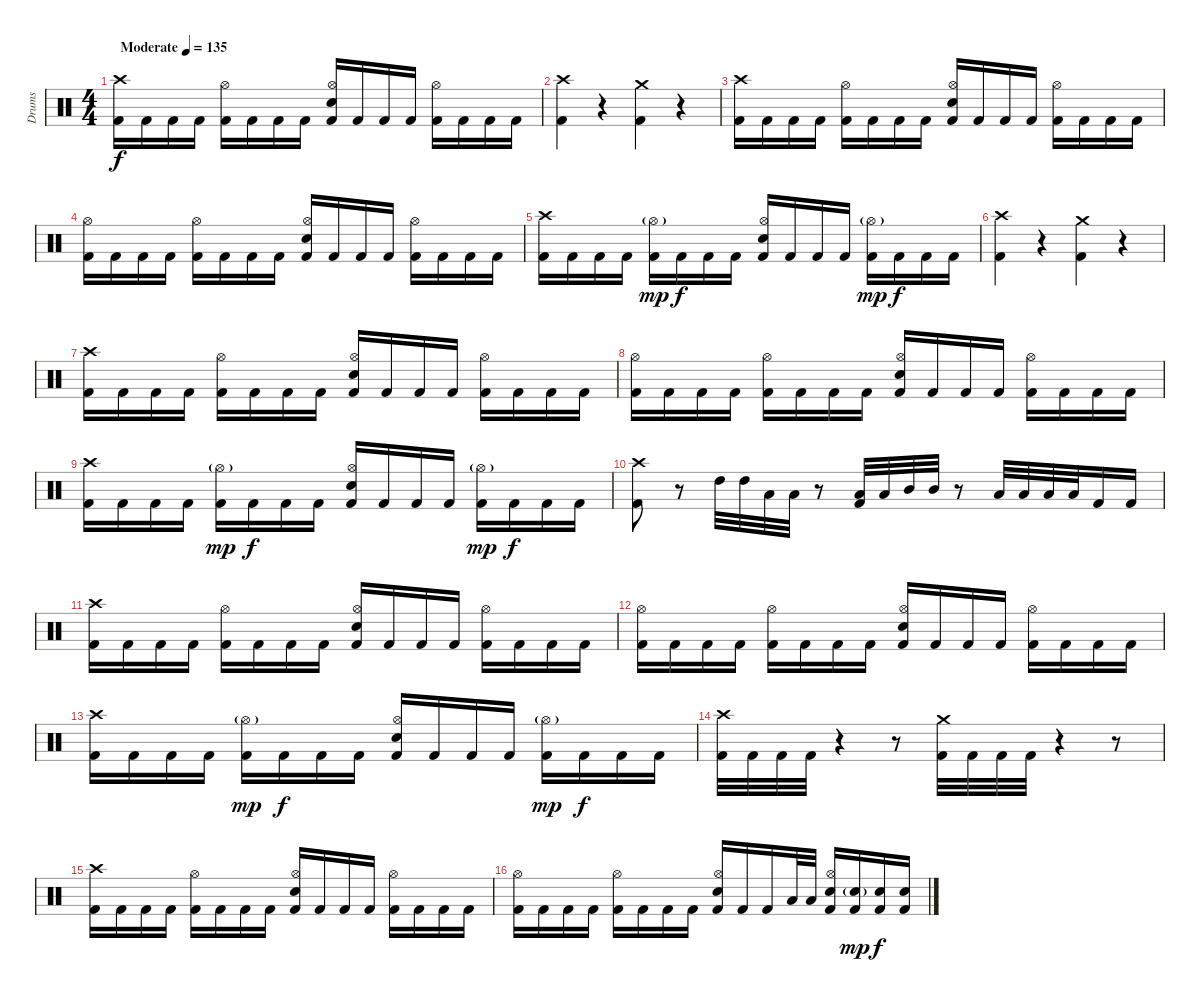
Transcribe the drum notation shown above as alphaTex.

\track ("Drums" "Drums") {instrument percussion}
\staff {score}
\articulation defaults
\ts (4 4)
\tempo (135 "Moderate")
\clef neutral
\ks c
("Crash high (hit)" "Kick (hit) 2").16{dy f} "Kick (hit) 2".16 "Kick (hit) 2".16 "Kick (hit) 2".16 ("Hi-Hat (open)" "Kick (hit) 2").16 "Kick (hit) 2".16 "Kick (hit) 2".16 "Kick (hit) 2".16 ("Hi-Hat (open)" "Electric Snare (hit)" "Kick (hit) 2").16 "Kick (hit) 2".16 "Kick (hit) 2".16 "Kick (hit) 2".16 ("Hi-Hat (open)" "Kick (hit) 2").16 "Kick (hit) 2".16 "Kick (hit) 2".16 "Kick (hit) 2".16 |
("Crash high (hit)" "Kick (hit) 2").4 r.4 ("Crash medium (hit)" "Kick (hit) 2").4 r.4 |
("Crash high (hit)" "Kick (hit) 2").16 "Kick (hit) 2".16 "Kick (hit) 2".16 "Kick (hit) 2".16 ("Hi-Hat (open)" "Kick (hit) 2").16 "Kick (hit) 2".16 "Kick (hit) 2".16 "Kick (hit) 2".16 ("Hi-Hat (open)" "Electric Snare (hit)" "Kick (hit) 2").16 "Kick (hit) 2".16 "Kick (hit) 2".16 "Kick (hit) 2".16 ("Hi-Hat (open)" "Kick (hit) 2").16 "Kick (hit) 2".16 "Kick (hit) 2".16 "Kick (hit) 2".16 |
("Hi-Hat (open)" "Kick (hit) 2").16 "Kick (hit) 2".16 "Kick (hit) 2".16 "Kick (hit) 2".16 ("Hi-Hat (open)" "Kick (hit) 2").16 "Kick (hit) 2".16 "Kick (hit) 2".16 "Kick (hit) 2".16 ("Hi-Hat (open)" "Electric Snare (hit)" "Kick (hit) 2").16 "Kick (hit) 2".16 "Kick (hit) 2".16 "Kick (hit) 2".16 ("Hi-Hat (open)" "Kick (hit) 2").16 "Kick (hit) 2".16 "Kick (hit) 2".16 "Kick (hit) 2".16 |
("Crash high (hit)" "Kick (hit) 2").16 "Kick (hit) 2".16 "Kick (hit) 2".16 "Kick (hit) 2".16 ("Hi-Hat (open)"{g} "Kick (hit) 2").16{dy mp} "Kick (hit) 2".16{dy f} "Kick (hit) 2".16 "Kick (hit) 2".16 ("Hi-Hat (open)" "Electric Snare (hit)" "Kick (hit) 2").16 "Kick (hit) 2".16 "Kick (hit) 2".16 "Kick (hit) 2".16 ("Hi-Hat (open)"{g} "Kick (hit) 2").16{dy mp} "Kick (hit) 2".16{dy f} "Kick (hit) 2".16 "Kick (hit) 2".16 |
("Crash high (hit)" "Kick (hit) 2").4 r.4 ("Crash medium (hit)" "Kick (hit) 2").4 r.4 |
("Crash high (hit)" "Kick (hit) 2").16 "Kick (hit) 2".16 "Kick (hit) 2".16 "Kick (hit) 2".16 ("Hi-Hat (open)" "Kick (hit) 2").16 "Kick (hit) 2".16 "Kick (hit) 2".16 "Kick (hit) 2".16 ("Hi-Hat (open)" "Electric Snare (hit)" "Kick (hit) 2").16 "Kick (hit) 2".16 "Kick (hit) 2".16 "Kick (hit) 2".16 ("Hi-Hat (open)" "Kick (hit) 2").16 "Kick (hit) 2".16 "Kick (hit) 2".16 "Kick (hit) 2".16 |
("Hi-Hat (open)" "Kick (hit) 2").16 "Kick (hit) 2".16 "Kick (hit) 2".16 "Kick (hit) 2".16 ("Hi-Hat (open)" "Kick (hit) 2").16 "Kick (hit) 2".16 "Kick (hit) 2".16 "Kick (hit) 2".16 ("Hi-Hat (open)" "Electric Snare (hit)" "Kick (hit) 2").16 "Kick (hit) 2".16 "Kick (hit) 2".16 "Kick (hit) 2".16 ("Hi-Hat (open)" "Kick (hit) 2").16 "Kick (hit) 2".16 "Kick (hit) 2".16 "Kick (hit) 2".16 |
("Crash high (hit)" "Kick (hit) 2").16 "Kick (hit) 2".16 "Kick (hit) 2".16 "Kick (hit) 2".16 ("Hi-Hat (open)"{g} "Kick (hit) 2").16{dy mp} "Kick (hit) 2".16{dy f} "Kick (hit) 2".16 "Kick (hit) 2".16 ("Hi-Hat (open)" "Electric Snare (hit)" "Kick (hit) 2").16 "Kick (hit) 2".16 "Kick (hit) 2".16 "Kick (hit) 2".16 ("Hi-Hat (open)"{g} "Kick (hit) 2").16{dy mp} "Kick (hit) 2".16{dy f} "Kick (hit) 2".16 "Kick (hit) 2".16 |
("Crash high (hit)" "Kick (hit) 2").8 r.8 "High Tom (hit)".32 "High Tom (hit)".32 "Low Tom (hit)".32 "Low Tom (hit)".32 r.8 ("Low Tom (hit)" "Kick (hit) 2").32 "Low Tom (hit)".32 "Mid Tom (hit)".32 "Mid Tom (hit)".32 r.8 "Low Tom (hit)".32 "Low Tom (hit)".32 "Low Floor Tom (hit)".32 "Low Floor Tom (hit)".32 "Kick (hit) 2".16 "Kick (hit) 2".16 |
("Crash high (hit)" "Kick (hit) 2").16 "Kick (hit) 2".16 "Kick (hit) 2".16 "Kick (hit) 2".16 ("Hi-Hat (open)" "Kick (hit) 2").16 "Kick (hit) 2".16 "Kick (hit) 2".16 "Kick (hit) 2".16 ("Hi-Hat (open)" "Electric Snare (hit)" "Kick (hit) 2").16 "Kick (hit) 2".16 "Kick (hit) 2".16 "Kick (hit) 2".16 ("Hi-Hat (open)" "Kick (hit) 2").16 "Kick (hit) 2".16 "Kick (hit) 2".16 "Kick (hit) 2".16 |
("Hi-Hat (open)" "Kick (hit) 2").16 "Kick (hit) 2".16 "Kick (hit) 2".16 "Kick (hit) 2".16 ("Hi-Hat (open)" "Kick (hit) 2").16 "Kick (hit) 2".16 "Kick (hit) 2".16 "Kick (hit) 2".16 ("Hi-Hat (open)" "Electric Snare (hit)" "Kick (hit) 2").16 "Kick (hit) 2".16 "Kick (hit) 2".16 "Kick (hit) 2".16 ("Hi-Hat (open)" "Kick (hit) 2").16 "Kick (hit) 2".16 "Kick (hit) 2".16 "Kick (hit) 2".16 |
("Crash high (hit)" "Kick (hit) 2").16 "Kick (hit) 2".16 "Kick (hit) 2".16 "Kick (hit) 2".16 ("Hi-Hat (open)"{g} "Kick (hit) 2").16{dy mp} "Kick (hit) 2".16{dy f} "Kick (hit) 2".16 "Kick (hit) 2".16 ("Hi-Hat (open)" "Electric Snare (hit)" "Kick (hit) 2").16 "Kick (hit) 2".16 "Kick (hit) 2".16 "Kick (hit) 2".16 ("Hi-Hat (open)"{g} "Kick (hit) 2").16{dy mp} "Kick (hit) 2".16{dy f} "Kick (hit) 2".16 "Kick (hit) 2".16 |
("Crash high (hit)" "Kick (hit) 2").32 "Kick (hit) 2".32 "Kick (hit) 2".32 "Kick (hit) 2".32 r.4 r.8 ("Crash medium (hit)" "Kick (hit) 2").32 "Kick (hit) 2".32 "Kick (hit) 2".32 "Kick (hit) 2".32 r.4 r.8 |
("Crash high (hit)" "Kick (hit) 2").16 "Kick (hit) 2".16 "Kick (hit) 2".16 "Kick (hit) 2".16 ("Hi-Hat (open)" "Kick (hit) 2").16 "Kick (hit) 2".16 "Kick (hit) 2".16 "Kick (hit) 2".16 ("Hi-Hat (open)" "Electric Snare (hit)" "Kick (hit) 2").16 "Kick (hit) 2".16 "Kick (hit) 2".16 "Kick (hit) 2".16 ("Hi-Hat (open)" "Kick (hit) 2").16 "Kick (hit) 2".16 "Kick (hit) 2".16 "Kick (hit) 2".16 |
("Hi-Hat (open)" "Kick (hit) 2").16 "Kick (hit) 2".16 "Kick (hit) 2".16 "Kick (hit) 2".16 ("Hi-Hat (open)" "Kick (hit) 2").16 "Kick (hit) 2".16 "Kick (hit) 2".16 "Kick (hit) 2".16 ("Hi-Hat (open)" "Electric Snare (hit)" "Kick (hit) 2").16 "Kick (hit) 2".16 "Kick (hit) 2".16 "Low Floor Tom (hit)".32 "Low Floor Tom (hit)".32 ("Hi-Hat (open)" "Electric Snare (hit)" "Kick (hit) 2").16 ("Electric Snare (hit)"{g} "Kick (hit) 2").16{dy mp} ("Electric Snare (hit)" "Kick (hit) 2").16{dy f} ("Electric Snare (hit)" "Kick (hit) 2").16
